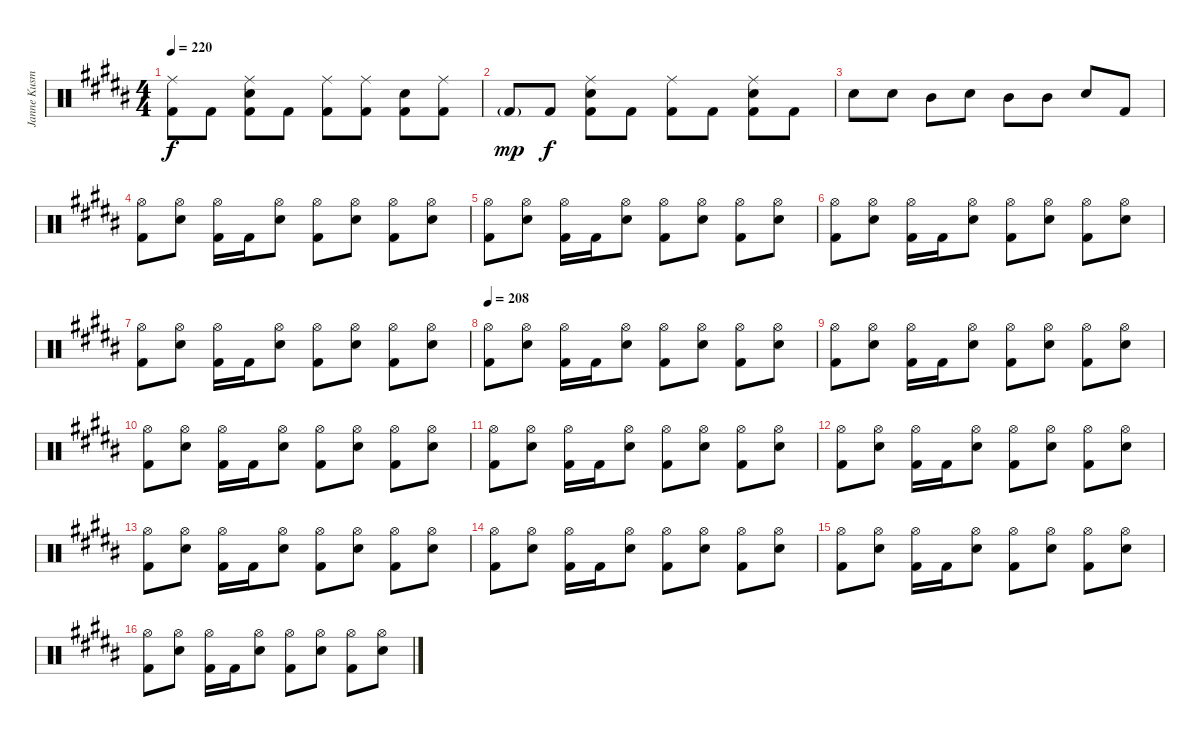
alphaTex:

\track ("Janne Kusmin" "Janne Kusm") {instrument percussion}
\staff {score}
\articulation defaults
\ts (4 4)
\tempo 220
\clef neutral
\ks b
("Ride (middle)" "Kick (hit) 2").8{dy f} "Kick (hit) 2".8 ("Ride (middle)" "Electric Snare (hit)" "Kick (hit) 2").8 "Kick (hit) 2".8 ("Ride (middle)" "Kick (hit) 2").8 ("Ride (middle)" "Kick (hit) 2").8 ("Electric Snare (hit)" "Kick (hit) 2").8 ("Ride (middle)" "Kick (hit) 2").8 |
\ks g#minor "Kick (hit) 2"{g}.8{dy mp} "Kick (hit) 2".8{dy f}
("Ride (middle)" "Electric Snare (hit)" "Kick (hit) 2").8 "Kick (hit) 2".8 ("Ride (middle)" "Kick (hit) 2").8 "Kick (hit) 2".8 ("Ride (middle)" "Electric Snare (hit)" "Kick (hit) 2").8 "Kick (hit) 2".8 |
\ks b "Electric Snare (hit)".8 "Electric Snare (hit)".8 "Mid Tom (hit)".8 "Electric Snare (hit)".8 "Mid Tom (hit)".8 "Mid Tom (hit)".8 "Electric Snare (hit)".8 "Kick (hit) 2".8
|
("Hi-Hat (open)" "Kick (hit) 2").8 ("Hi-Hat (open)" "Electric Snare (hit)").8 ("Hi-Hat (open)" "Kick (hit) 2").16 "Kick (hit) 2".16 ("Hi-Hat (open)" "Electric Snare (hit)").8 ("Hi-Hat (open)" "Kick (hit) 2").8 ("Hi-Hat (open)" "Electric Snare (hit)").8 ("Hi-Hat (open)" "Kick (hit) 2").8 ("Hi-Hat (open)" "Electric Snare (hit)").8 |
("Hi-Hat (open)" "Kick (hit) 2").8 ("Hi-Hat (open)" "Electric Snare (hit)").8 ("Hi-Hat (open)" "Kick (hit) 2").16 "Kick (hit) 2".16 ("Hi-Hat (open)" "Electric Snare (hit)").8 ("Hi-Hat (open)" "Kick (hit) 2").8 ("Hi-Hat (open)" "Electric Snare (hit)").8 ("Hi-Hat (open)" "Kick (hit) 2").8 ("Hi-Hat (open)" "Electric Snare (hit)").8 |
("Hi-Hat (open)" "Kick (hit) 2").8 ("Hi-Hat (open)" "Electric Snare (hit)").8 ("Hi-Hat (open)" "Kick (hit) 2").16 "Kick (hit) 2".16 ("Hi-Hat (open)" "Electric Snare (hit)").8 ("Hi-Hat (open)" "Kick (hit) 2").8 ("Hi-Hat (open)" "Electric Snare (hit)").8 ("Hi-Hat (open)" "Kick (hit) 2").8 ("Hi-Hat (open)" "Electric Snare (hit)").8 |
("Hi-Hat (open)" "Kick (hit) 2").8 ("Hi-Hat (open)" "Electric Snare (hit)").8 ("Hi-Hat (open)" "Kick (hit) 2").16 "Kick (hit) 2".16 ("Hi-Hat (open)" "Electric Snare (hit)").8 ("Hi-Hat (open)" "Kick (hit) 2").8 ("Hi-Hat (open)" "Electric Snare (hit)").8 ("Hi-Hat (open)" "Kick (hit) 2").8 ("Hi-Hat (open)" "Electric Snare (hit)").8 |
\tempo 208
("Hi-Hat (open)" "Kick (hit) 2").8 ("Hi-Hat (open)" "Electric Snare (hit)").8 ("Hi-Hat (open)" "Kick (hit) 2").16 "Kick (hit) 2".16 ("Hi-Hat (open)" "Electric Snare (hit)").8 ("Hi-Hat (open)" "Kick (hit) 2").8 ("Hi-Hat (open)" "Electric Snare (hit)").8 ("Hi-Hat (open)" "Kick (hit) 2").8 ("Hi-Hat (open)" "Electric Snare (hit)").8 |
("Hi-Hat (open)" "Kick (hit) 2").8 ("Hi-Hat (open)" "Electric Snare (hit)").8 ("Hi-Hat (open)" "Kick (hit) 2").16 "Kick (hit) 2".16 ("Hi-Hat (open)" "Electric Snare (hit)").8 ("Hi-Hat (open)" "Kick (hit) 2").8 ("Hi-Hat (open)" "Electric Snare (hit)").8 ("Hi-Hat (open)" "Kick (hit) 2").8 ("Hi-Hat (open)" "Electric Snare (hit)").8 |
("Hi-Hat (open)" "Kick (hit) 2").8 ("Hi-Hat (open)" "Electric Snare (hit)").8 ("Hi-Hat (open)" "Kick (hit) 2").16 "Kick (hit) 2".16 ("Hi-Hat (open)" "Electric Snare (hit)").8 ("Hi-Hat (open)" "Kick (hit) 2").8 ("Hi-Hat (open)" "Electric Snare (hit)").8 ("Hi-Hat (open)" "Kick (hit) 2").8 ("Hi-Hat (open)" "Electric Snare (hit)").8 |
("Hi-Hat (open)" "Kick (hit) 2").8 ("Hi-Hat (open)" "Electric Snare (hit)").8 ("Hi-Hat (open)" "Kick (hit) 2").16 "Kick (hit) 2".16 ("Hi-Hat (open)" "Electric Snare (hit)").8 ("Hi-Hat (open)" "Kick (hit) 2").8 ("Hi-Hat (open)" "Electric Snare (hit)").8 ("Hi-Hat (open)" "Kick (hit) 2").8 ("Hi-Hat (open)" "Electric Snare (hit)").8 |
("Hi-Hat (open)" "Kick (hit) 2").8 ("Hi-Hat (open)" "Electric Snare (hit)").8 ("Hi-Hat (open)" "Kick (hit) 2").16 "Kick (hit) 2".16 ("Hi-Hat (open)" "Electric Snare (hit)").8 ("Hi-Hat (open)" "Kick (hit) 2").8 ("Hi-Hat (open)" "Electric Snare (hit)").8 ("Hi-Hat (open)" "Kick (hit) 2").8 ("Hi-Hat (open)" "Electric Snare (hit)").8 |
("Hi-Hat (open)" "Kick (hit) 2").8 ("Hi-Hat (open)" "Electric Snare (hit)").8 ("Hi-Hat (open)" "Kick (hit) 2").16 "Kick (hit) 2".16 ("Hi-Hat (open)" "Electric Snare (hit)").8 ("Hi-Hat (open)" "Kick (hit) 2").8 ("Hi-Hat (open)" "Electric Snare (hit)").8 ("Hi-Hat (open)" "Kick (hit) 2").8 ("Hi-Hat (open)" "Electric Snare (hit)").8 |
("Hi-Hat (open)" "Kick (hit) 2").8 ("Hi-Hat (open)" "Electric Snare (hit)").8 ("Hi-Hat (open)" "Kick (hit) 2").16 "Kick (hit) 2".16 ("Hi-Hat (open)" "Electric Snare (hit)").8 ("Hi-Hat (open)" "Kick (hit) 2").8 ("Hi-Hat (open)" "Electric Snare (hit)").8 ("Hi-Hat (open)" "Kick (hit) 2").8 ("Hi-Hat (open)" "Electric Snare (hit)").8 |
("Hi-Hat (open)" "Kick (hit) 2").8 ("Hi-Hat (open)" "Electric Snare (hit)").8 ("Hi-Hat (open)" "Kick (hit) 2").16 "Kick (hit) 2".16 ("Hi-Hat (open)" "Electric Snare (hit)").8 ("Hi-Hat (open)" "Kick (hit) 2").8 ("Hi-Hat (open)" "Electric Snare (hit)").8 ("Hi-Hat (open)" "Kick (hit) 2").8 ("Hi-Hat (open)" "Electric Snare (hit)").8 |
("Hi-Hat (open)" "Kick (hit) 2").8 ("Hi-Hat (open)" "Electric Snare (hit)").8 ("Hi-Hat (open)" "Kick (hit) 2").16 "Kick (hit) 2".16 ("Hi-Hat (open)" "Electric Snare (hit)").8 ("Hi-Hat (open)" "Kick (hit) 2").8 ("Hi-Hat (open)" "Electric Snare (hit)").8 ("Hi-Hat (open)" "Kick (hit) 2").8 ("Hi-Hat (open)" "Electric Snare (hit)").8
